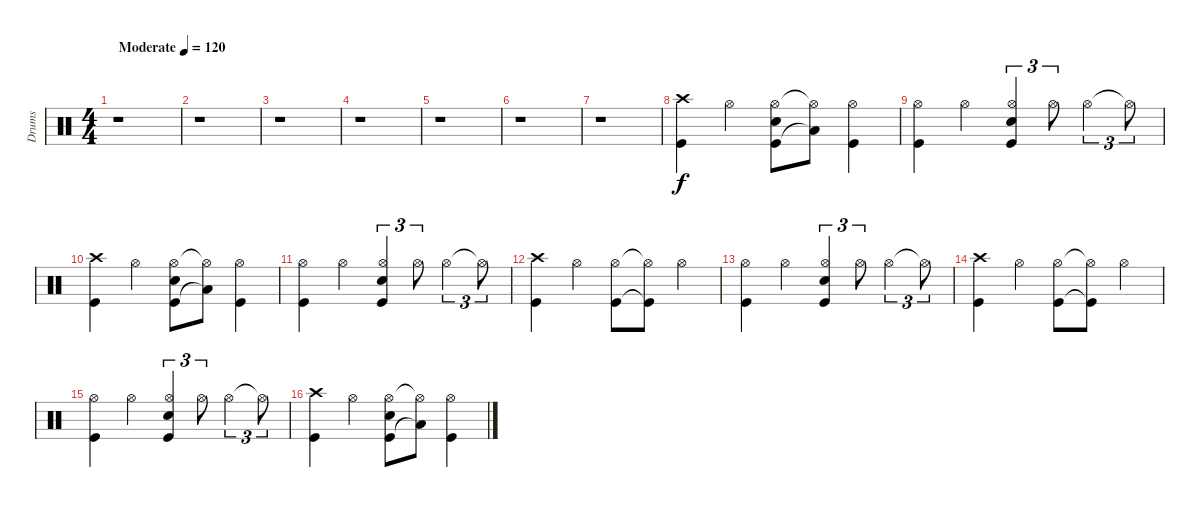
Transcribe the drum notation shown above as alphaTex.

\track ("Drums" "Drums") {instrument percussion}
\staff {score}
\articulation defaults
\ts (4 4)
\tempo (120 "Moderate")
\clef neutral
\ks c
r.1{dy f} |
r.1 |
r.1 |
r.1 |
r.1 |
r.1 |
r.1 |
("Crash high (hit)" "Kick (hit)").4 "Hi-Hat (open)".4 ("Hi-Hat (open)" "Kick (hit)" "Electric Snare (hit)").8 ("Hi-Hat (open)"{t} "Low Tom (hit)"{t}).8 ("Hi-Hat (open)" "Kick (hit)").4 |
("Hi-Hat (open)" "Kick (hit)").4 "Hi-Hat (open)".4 ("Hi-Hat (open)" "Kick (hit)" "Electric Snare (hit)").4{tu (3 2)} "Hi-Hat (open)".8{tu (3 2)} "Hi-Hat (open)".4{tu (3 2)} "Hi-Hat (open)"{t}.8{tu (3 2)} |
("Crash high (hit)" "Kick (hit)").4 "Hi-Hat (open)".4 ("Hi-Hat (open)" "Kick (hit)" "Electric Snare (hit)").8 ("Hi-Hat (open)"{t} "Low Tom (hit)"{t}).8 ("Hi-Hat (open)" "Kick (hit)").4 |
("Hi-Hat (open)" "Kick (hit)").4 "Hi-Hat (open)".4 ("Hi-Hat (open)" "Kick (hit)" "Electric Snare (hit)").4{tu (3 2)} "Hi-Hat (open)".8{tu (3 2)} "Hi-Hat (open)".4{tu (3 2)} "Hi-Hat (open)"{t}.8{tu (3 2)} |
("Crash high (hit)" "Kick (hit)").4 "Hi-Hat (open)".4 ("Hi-Hat (open)" "Kick (hit)").8 ("Hi-Hat (open)"{t} "Kick (hit)"{t}).8 "Hi-Hat (open)".4 |
("Hi-Hat (open)" "Kick (hit)").4 "Hi-Hat (open)".4 ("Hi-Hat (open)" "Kick (hit)" "Electric Snare (hit)").4{tu (3 2)} "Hi-Hat (open)".8{tu (3 2)} "Hi-Hat (open)".4{tu (3 2)} "Hi-Hat (open)"{t}.8{tu (3 2)} |
("Crash high (hit)" "Kick (hit)").4 "Hi-Hat (open)".4 ("Hi-Hat (open)" "Kick (hit)").8 ("Hi-Hat (open)"{t} "Kick (hit)"{t}).8 "Hi-Hat (open)".4 |
("Hi-Hat (open)" "Kick (hit)").4 "Hi-Hat (open)".4 ("Hi-Hat (open)" "Kick (hit)" "Electric Snare (hit)").4{tu (3 2)} "Hi-Hat (open)".8{tu (3 2)} "Hi-Hat (open)".4{tu (3 2)} "Hi-Hat (open)"{t}.8{tu (3 2)} |
("Crash high (hit)" "Kick (hit)").4 "Hi-Hat (open)".4 ("Hi-Hat (open)" "Kick (hit)" "Electric Snare (hit)").8 ("Hi-Hat (open)"{t} "Low Tom (hit)"{t}).8 ("Hi-Hat (open)" "Kick (hit)").4
